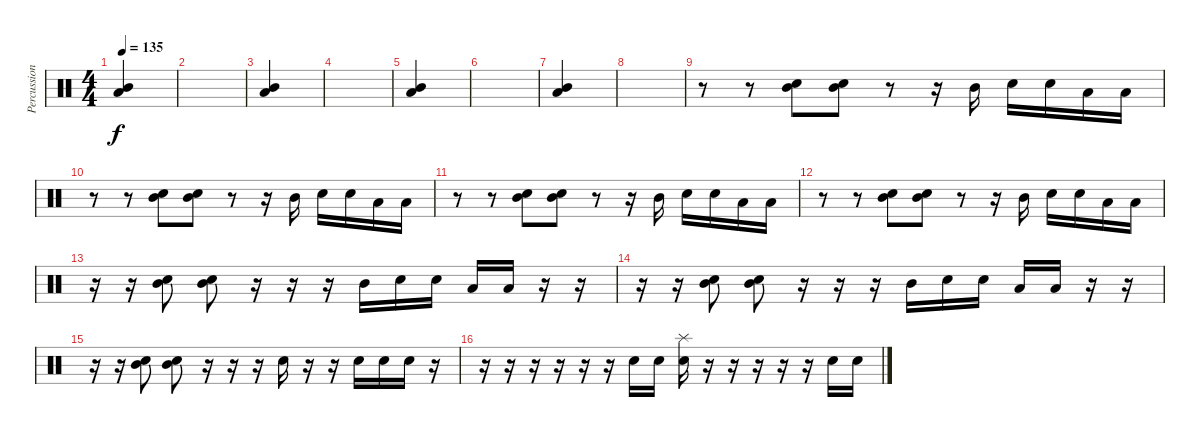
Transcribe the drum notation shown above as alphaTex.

\track ("Percussion" "Percussion") {instrument percussion}
\staff {score}
\articulation defaults
\ts (4 4)
\tempo 135
\clef neutral
\ks c
("Mid Tom (hit)" "Low Tom (hit)").4{dy f} |
|
("Mid Tom (hit)" "Low Tom (hit)").4 |
|
("Mid Tom (hit)" "Low Tom (hit)").4 |
|
("Mid Tom (hit)" "Low Tom (hit)").4 |
|
r.8 r.8 ("Snare (hit) 2" "Mid Tom (hit)").8 ("Snare (hit) 2" "Mid Tom (hit)").8 r.8 r.16 "Mid Tom (hit)".16 "Snare (hit) 2".16 "Snare (hit) 2".16 "Low Tom (hit)".16 "Low Tom (hit)".16 |
r.8 r.8 ("Snare (hit) 2" "Mid Tom (hit)").8 ("Snare (hit) 2" "Mid Tom (hit)").8 r.8 r.16 "Mid Tom (hit)".16 "Snare (hit) 2".16 "Snare (hit) 2".16 "Low Tom (hit)".16 "Low Tom (hit)".16 |
r.8 r.8 ("Snare (hit) 2" "Mid Tom (hit)").8 ("Snare (hit) 2" "Mid Tom (hit)").8 r.8 r.16 "Mid Tom (hit)".16 "Snare (hit) 2".16 "Snare (hit) 2".16 "Low Tom (hit)".16 "Low Tom (hit)".16 |
r.8 r.8 ("Snare (hit) 2" "Mid Tom (hit)").8 ("Snare (hit) 2" "Mid Tom (hit)").8 r.8 r.16 "Mid Tom (hit)".16 "Snare (hit) 2".16 "Snare (hit) 2".16 "Low Tom (hit)".16 "Low Tom (hit)".16 |
r.16 r.16 ("Snare (hit) 2" "Mid Tom (hit)").8 ("Snare (hit) 2" "Mid Tom (hit)").8 r.16 r.16 r.16 "Mid Tom (hit)".16 "Snare (hit) 2".16 "Snare (hit) 2".16 "Low Tom (hit)".16 "Low Tom (hit)".16 r.16 r.16 |
r.16 r.16 ("Snare (hit) 2" "Mid Tom (hit)").8 ("Snare (hit) 2" "Mid Tom (hit)").8 r.16 r.16 r.16 "Mid Tom (hit)".16 "Snare (hit) 2".16 "Snare (hit) 2".16 "Low Tom (hit)".16 "Low Tom (hit)".16 r.16 r.16 |
r.16 r.16 ("Snare (hit) 2" "Mid Tom (hit)").8 ("Snare (hit) 2" "Mid Tom (hit)").8 r.16 r.16 r.16 "Snare (hit) 2".16 r.16 r.16 "Snare (hit) 2".16 "Snare (hit) 2".16 "Snare (hit) 2".16 r.16 |
r.16 r.16 r.16 r.16 r.16 r.16 "Snare (hit) 2".16 "Snare (hit) 2".16 ("Snare (hit) 2" "Splash (hit)").16 r.16 r.16 r.16 r.16 r.16 "Snare (hit) 2".16 "Snare (hit) 2".16
